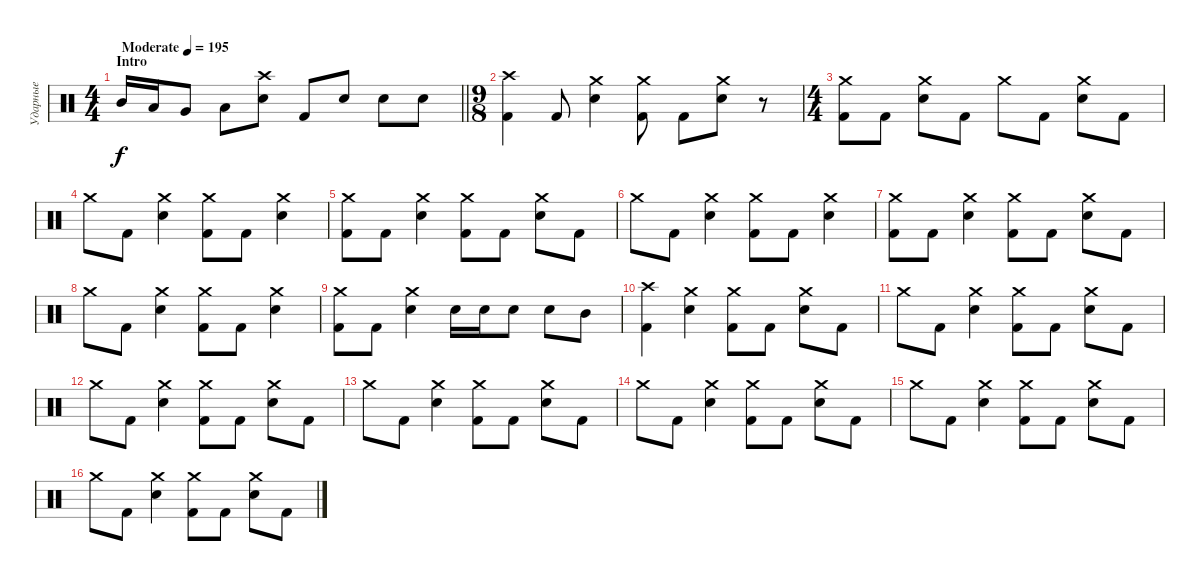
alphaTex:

\track ("Ударные" "Ударные") {instrument percussion}
\staff {score}
\articulation defaults
\ts (4 4)
\section ("" "Intro")
\tempo (195 "Moderate")
\clef neutral
\barLineRight lightlight
\ks c "Mid Tom (hit)".16{dy f} "Low Tom (hit)".16 "Very Low Tom (hit)".8 "Low Floor Tom (hit)".8
("Crash high (hit)" "Electric Snare (hit)").8 "Kick (hit) 2".8 "Electric Snare (hit)".8 "Electric Snare (hit)".8 "Electric Snare (hit)".8 |
\ts (9 8)
("Crash high (hit)" "Kick (hit) 2").4 "Kick (hit) 2".8 ("Crash medium (hit)" "Electric Snare (hit)").4 ("Crash medium (hit)" "Kick (hit) 2").8 "Kick (hit) 2".8 ("Crash medium (hit)" "Electric Snare (hit)").8 r.8 |
\ts (4 4)
("Crash medium (hit)" "Kick (hit) 2").8 "Kick (hit) 2".8 ("Crash medium (hit)" "Electric Snare (hit)").8 "Kick (hit) 2".8 "Crash medium (hit)".8 "Kick (hit) 2".8 ("Crash medium (hit)" "Electric Snare (hit)").8 "Kick (hit) 2".8 |
"Crash medium (hit)".8 "Kick (hit) 2".8 ("Crash medium (hit)" "Electric Snare (hit)").4 ("Crash medium (hit)" "Kick (hit) 2").8 "Kick (hit) 2".8 ("Crash medium (hit)" "Electric Snare (hit)").4 |
("Crash medium (hit)" "Kick (hit) 2").8 "Kick (hit) 2".8 ("Crash medium (hit)" "Electric Snare (hit)").4 ("Crash medium (hit)" "Kick (hit) 2").8 "Kick (hit) 2".8 ("Crash medium (hit)" "Electric Snare (hit)").8 "Kick (hit) 2".8 |
"Crash medium (hit)".8 "Kick (hit) 2".8 ("Crash medium (hit)" "Electric Snare (hit)").4 ("Crash medium (hit)" "Kick (hit) 2").8 "Kick (hit) 2".8 ("Crash medium (hit)" "Electric Snare (hit)").4 |
("Crash medium (hit)" "Kick (hit) 2").8 "Kick (hit) 2".8 ("Crash medium (hit)" "Electric Snare (hit)").4 ("Crash medium (hit)" "Kick (hit) 2").8 "Kick (hit) 2".8 ("Crash medium (hit)" "Electric Snare (hit)").8 "Kick (hit) 2".8 |
"Crash medium (hit)".8 "Kick (hit) 2".8 ("Crash medium (hit)" "Electric Snare (hit)").4 ("Crash medium (hit)" "Kick (hit) 2").8 "Kick (hit) 2".8 ("Crash medium (hit)" "Electric Snare (hit)").4 |
("Crash medium (hit)" "Kick (hit) 2").8 "Kick (hit) 2".8 ("Crash medium (hit)" "Electric Snare (hit)").4 "Electric Snare (hit)".16 "Electric Snare (hit)".16 "Electric Snare (hit)".8 "Electric Snare (hit)".8 "Mid Tom (hit)".8 |
("Crash high (hit)" "Kick (hit) 2").4 ("Crash medium (hit)" "Electric Snare (hit)").4 ("Crash medium (hit)" "Kick (hit) 2").8 "Kick (hit) 2".8 ("Crash medium (hit)" "Electric Snare (hit)").8 "Kick (hit) 2".8 |
"Crash medium (hit)".8 "Kick (hit) 2".8 ("Crash medium (hit)" "Electric Snare (hit)").4 ("Crash medium (hit)" "Kick (hit) 2").8 "Kick (hit) 2".8 ("Crash medium (hit)" "Electric Snare (hit)").8 "Kick (hit) 2".8 |
"Crash medium (hit)".8 "Kick (hit) 2".8 ("Crash medium (hit)" "Electric Snare (hit)").4 ("Crash medium (hit)" "Kick (hit) 2").8 "Kick (hit) 2".8 ("Crash medium (hit)" "Electric Snare (hit)").8 "Kick (hit) 2".8 |
"Crash medium (hit)".8 "Kick (hit) 2".8 ("Crash medium (hit)" "Electric Snare (hit)").4 ("Crash medium (hit)" "Kick (hit) 2").8 "Kick (hit) 2".8 ("Crash medium (hit)" "Electric Snare (hit)").8 "Kick (hit) 2".8 |
"Crash medium (hit)".8 "Kick (hit) 2".8 ("Crash medium (hit)" "Electric Snare (hit)").4 ("Crash medium (hit)" "Kick (hit) 2").8 "Kick (hit) 2".8 ("Crash medium (hit)" "Electric Snare (hit)").8 "Kick (hit) 2".8 |
"Crash medium (hit)".8 "Kick (hit) 2".8 ("Crash medium (hit)" "Electric Snare (hit)").4 ("Crash medium (hit)" "Kick (hit) 2").8 "Kick (hit) 2".8 ("Crash medium (hit)" "Electric Snare (hit)").8 "Kick (hit) 2".8 |
"Crash medium (hit)".8 "Kick (hit) 2".8 ("Crash medium (hit)" "Electric Snare (hit)").4 ("Crash medium (hit)" "Kick (hit) 2").8 "Kick (hit) 2".8 ("Crash medium (hit)" "Electric Snare (hit)").8 "Kick (hit) 2".8
